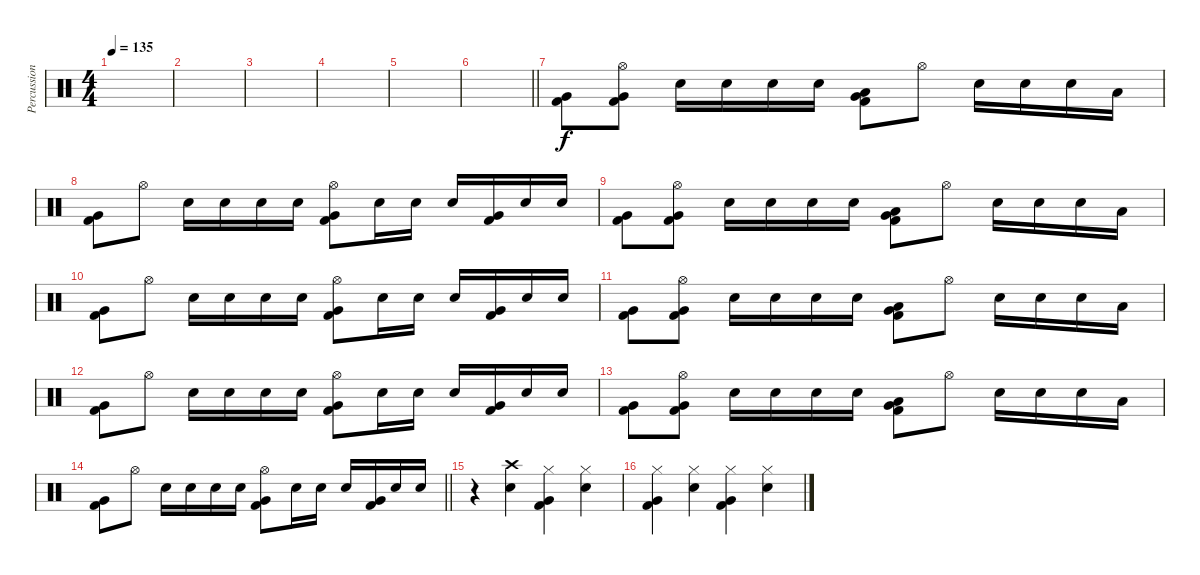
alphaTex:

\track ("Percussion" "Percussion") {instrument percussion}
\staff {score}
\articulation defaults
\ts (4 4)
\tempo 135
\clef neutral
\ks c
|
|
|
|
|
\barLineRight lightlight
|
("Very Low Tom (hit)" "Kick (hit) 2").8 ("Hi-Hat (open)" "Very Low Tom (hit)" "Kick (hit) 2").8 "Electric Snare (hit)".16 "Electric Snare (hit)".16 "Electric Snare (hit)".16 "Electric Snare (hit)".16 ("Low Tom (hit)" "Very Low Tom (hit)" "Kick (hit) 2").8 "Hi-Hat (open)".8 "Electric Snare (hit)".16 "Electric Snare (hit)".16 "Electric Snare (hit)".16 "Low Tom (hit)".16 |
("Very Low Tom (hit)" "Kick (hit) 2").8 "Hi-Hat (open)".8 "Electric Snare (hit)".16 "Electric Snare (hit)".16 "Electric Snare (hit)".16 "Electric Snare (hit)".16 ("Hi-Hat (open)" "Very Low Tom (hit)" "Kick (hit) 2").8 "Electric Snare (hit)".16 "Electric Snare (hit)".16 "Electric Snare (hit)".16 ("Very Low Tom (hit)" "Kick (hit) 2").16 "Electric Snare (hit)".16 "Electric Snare (hit)".16 |
("Very Low Tom (hit)" "Kick (hit) 2").8 ("Hi-Hat (open)" "Very Low Tom (hit)" "Kick (hit) 2").8 "Electric Snare (hit)".16 "Electric Snare (hit)".16 "Electric Snare (hit)".16 "Electric Snare (hit)".16 ("Low Tom (hit)" "Very Low Tom (hit)" "Kick (hit) 2").8 "Hi-Hat (open)".8 "Electric Snare (hit)".16 "Electric Snare (hit)".16 "Electric Snare (hit)".16 "Low Tom (hit)".16 |
("Very Low Tom (hit)" "Kick (hit) 2").8 "Hi-Hat (open)".8 "Electric Snare (hit)".16 "Electric Snare (hit)".16 "Electric Snare (hit)".16 "Electric Snare (hit)".16 ("Hi-Hat (open)" "Very Low Tom (hit)" "Kick (hit) 2").8 "Electric Snare (hit)".16 "Electric Snare (hit)".16 "Electric Snare (hit)".16 ("Very Low Tom (hit)" "Kick (hit) 2").16 "Electric Snare (hit)".16 "Electric Snare (hit)".16 |
("Very Low Tom (hit)" "Kick (hit) 2").8 ("Hi-Hat (open)" "Very Low Tom (hit)" "Kick (hit) 2").8 "Electric Snare (hit)".16 "Electric Snare (hit)".16 "Electric Snare (hit)".16 "Electric Snare (hit)".16 ("Low Tom (hit)" "Very Low Tom (hit)" "Kick (hit) 2").8 "Hi-Hat (open)".8 "Electric Snare (hit)".16 "Electric Snare (hit)".16 "Electric Snare (hit)".16 "Low Tom (hit)".16 |
("Very Low Tom (hit)" "Kick (hit) 2").8 "Hi-Hat (open)".8 "Electric Snare (hit)".16 "Electric Snare (hit)".16 "Electric Snare (hit)".16 "Electric Snare (hit)".16 ("Hi-Hat (open)" "Very Low Tom (hit)" "Kick (hit) 2").8 "Electric Snare (hit)".16 "Electric Snare (hit)".16 "Electric Snare (hit)".16 ("Very Low Tom (hit)" "Kick (hit) 2").16 "Electric Snare (hit)".16 "Electric Snare (hit)".16 |
("Very Low Tom (hit)" "Kick (hit) 2").8 ("Hi-Hat (open)" "Very Low Tom (hit)" "Kick (hit) 2").8 "Electric Snare (hit)".16 "Electric Snare (hit)".16 "Electric Snare (hit)".16 "Electric Snare (hit)".16 ("Low Tom (hit)" "Very Low Tom (hit)" "Kick (hit) 2").8 "Hi-Hat (open)".8 "Electric Snare (hit)".16 "Electric Snare (hit)".16 "Electric Snare (hit)".16 "Low Tom (hit)".16 |
\barLineRight lightlight
("Very Low Tom (hit)" "Kick (hit) 2").8 "Hi-Hat (open)".8 "Electric Snare (hit)".16 "Electric Snare (hit)".16 "Electric Snare (hit)".16 "Electric Snare (hit)".16 ("Hi-Hat (open)" "Very Low Tom (hit)" "Kick (hit) 2").8 "Electric Snare (hit)".16 "Electric Snare (hit)".16 "Electric Snare (hit)".16 ("Very Low Tom (hit)" "Kick (hit) 2").16 "Electric Snare (hit)".16 "Electric Snare (hit)".16 |
r.4 ("Crash high (hit)" "Electric Snare (hit)").4 ("Hi-Hat (closed)" "Very Low Tom (hit)" "Kick (hit) 2").4 ("Hi-Hat (closed)" "Electric Snare (hit)").4 |
("Hi-Hat (closed)" "Very Low Tom (hit)" "Kick (hit) 2").4 ("Hi-Hat (closed)" "Electric Snare (hit)").4 ("Hi-Hat (closed)" "Very Low Tom (hit)" "Kick (hit) 2").4 ("Hi-Hat (closed)" "Electric Snare (hit)").4
